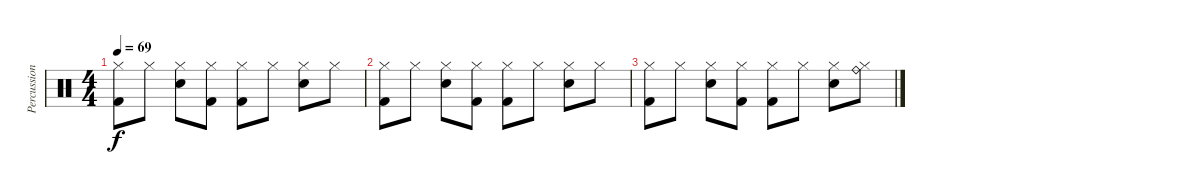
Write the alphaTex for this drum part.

\track ("Percussion" "Percussion") {instrument percussion}
\staff {score}
\articulation defaults
\ts (4 4)
\tempo 69
\clef neutral
\ks c
("Hi-Hat (closed)" "Kick (hit) 2").8{dy f} "Hi-Hat (closed)".8 ("Hi-Hat (closed)" "Snare (hit) 2").8 ("Hi-Hat (closed)" "Kick (hit) 2").8 ("Hi-Hat (closed)" "Kick (hit) 2").8 "Hi-Hat (closed)".8 ("Hi-Hat (closed)" "Snare (hit) 2").8 "Hi-Hat (closed)".8 |
("Hi-Hat (closed)" "Kick (hit) 2").8 "Hi-Hat (closed)".8 ("Hi-Hat (closed)" "Snare (hit) 2").8 ("Hi-Hat (closed)" "Kick (hit) 2").8 ("Hi-Hat (closed)" "Kick (hit) 2").8 "Hi-Hat (closed)".8 ("Hi-Hat (closed)" "Snare (hit) 2").8 "Hi-Hat (closed)".8 |
("Hi-Hat (closed)" "Kick (hit) 2").8 "Hi-Hat (closed)".8 ("Hi-Hat (closed)" "Snare (hit) 2").8 ("Hi-Hat (closed)" "Kick (hit) 2").8 ("Hi-Hat (closed)" "Kick (hit) 2").8 "Hi-Hat (closed)".8 ("Hi-Hat (closed)" "Snare (hit) 2").8 ("Hi-Hat (closed)" "Ride (bell)").8
